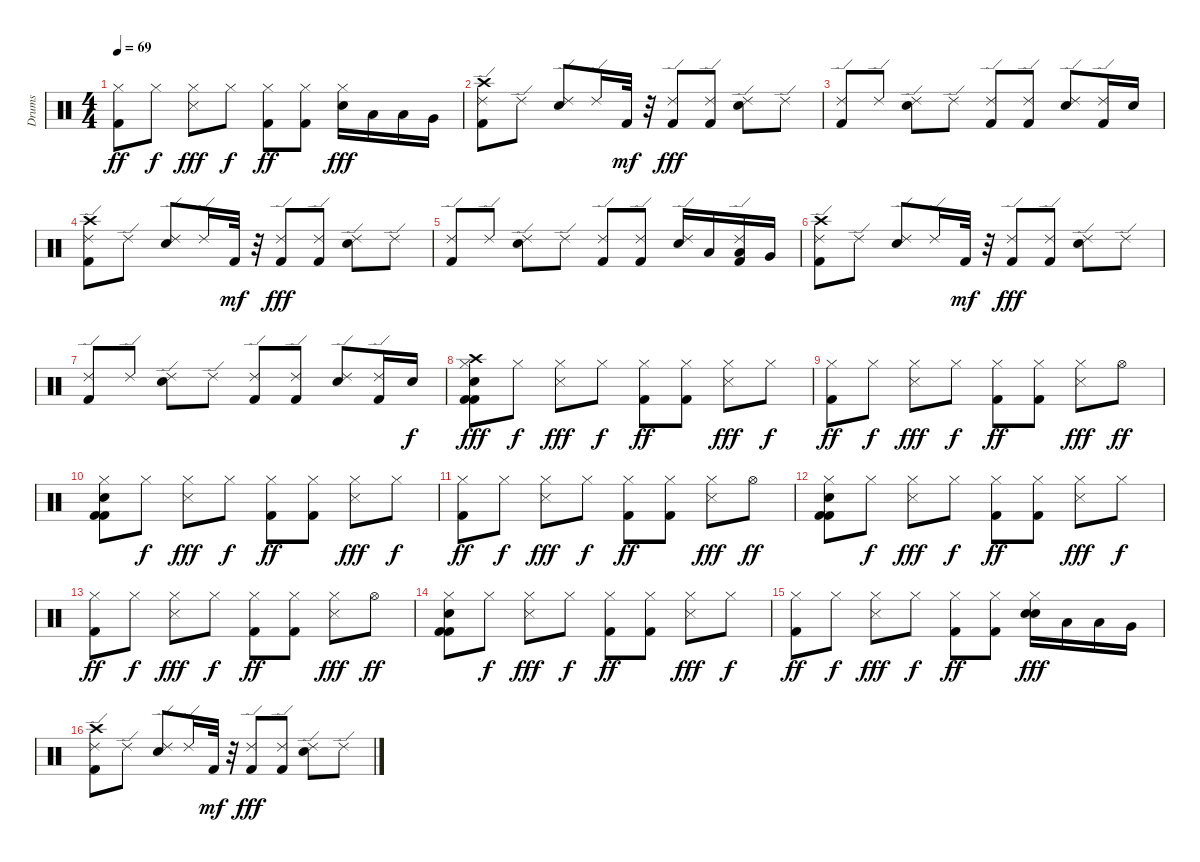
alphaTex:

\track ("Drums" "Drums") {instrument percussion}
\staff {score}
\articulation defaults
\ts (4 4)
\tempo 69
\clef neutral
\ks c
("Kick (hit) 2" "Hi-Hat (closed)").8{dy ff} "Hi-Hat (closed)".8{dy f} ("Snare (side stick) 3" "Hi-Hat (closed)").8{dy fff} "Hi-Hat (closed)".8{dy f} ("Kick (hit) 2" "Hi-Hat (closed)").8{dy ff} ("Kick (hit) 2" "Hi-Hat (closed)").8 ("Electric Snare (hit)" "Hi-Hat (closed)").16{dy fff} "Low Tom (hit)".16 "Low Tom (hit)".16 "Very Low Tom (hit)".16 |
("Kick (hit) 2" "Ride (edge) 2" "Crash high (hit)").8 "Ride (edge) 2".8 ("Electric Snare (hit)" "Ride (edge) 2").8 "Ride (edge) 2".16 "Kick (hit) 2".32{dy mf} r.32 ("Kick (hit) 2" "Ride (edge) 2").8{dy fff} ("Kick (hit) 2" "Ride (edge) 2").8 ("Electric Snare (hit)" "Ride (edge) 2").8 "Ride (edge) 2".8 |
("Kick (hit) 2" "Ride (edge) 2").8 "Ride (edge) 2".8 ("Electric Snare (hit)" "Ride (edge) 2").8 "Ride (edge) 2".8 ("Kick (hit) 2" "Ride (edge) 2").8 ("Kick (hit) 2" "Ride (edge) 2").8 ("Electric Snare (hit)" "Ride (edge) 2").8 ("Kick (hit) 2" "Ride (edge) 2").16 "Electric Snare (hit)".16 |
("Kick (hit) 2" "Ride (edge) 2" "Crash high (hit)").8 "Ride (edge) 2".8 ("Electric Snare (hit)" "Ride (edge) 2").8 "Ride (edge) 2".16 "Kick (hit) 2".32{dy mf} r.32 ("Kick (hit) 2" "Ride (edge) 2").8{dy fff} ("Kick (hit) 2" "Ride (edge) 2").8 ("Electric Snare (hit)" "Ride (edge) 2").8 "Ride (edge) 2".8 |
("Kick (hit) 2" "Ride (edge) 2").8 "Ride (edge) 2".8 ("Electric Snare (hit)" "Ride (edge) 2").8 "Ride (edge) 2".8 ("Kick (hit) 2" "Ride (edge) 2").8 ("Kick (hit) 2" "Ride (edge) 2").8 ("Electric Snare (hit)" "Ride (edge) 2").16 "Low Tom (hit)".16 ("Kick (hit) 2" "Low Tom (hit)" "Ride (edge) 2").16 "Very Low Tom (hit)".16 |
("Kick (hit) 2" "Ride (edge) 2" "Crash high (hit)").8 "Ride (edge) 2".8 ("Electric Snare (hit)" "Ride (edge) 2").8 "Ride (edge) 2".16 "Kick (hit) 2".32{dy mf} r.32 ("Kick (hit) 2" "Ride (edge) 2").8{dy fff} ("Kick (hit) 2" "Ride (edge) 2").8 ("Electric Snare (hit)" "Ride (edge) 2").8 "Ride (edge) 2".8 |
("Kick (hit) 2" "Ride (edge) 2").8 "Ride (edge) 2".8 ("Electric Snare (hit)" "Ride (edge) 2").8 "Ride (edge) 2".8 ("Kick (hit) 2" "Ride (edge) 2").8 ("Kick (hit) 2" "Ride (edge) 2").8 ("Electric Snare (hit)" "Ride (edge) 2").8 ("Kick (hit) 2" "Ride (edge) 2").16 "Electric Snare (hit)".16{dy f} |
("Snare (hit)" "Kick (hit) 2" "Kick (hit) 2" "Hi-Hat (closed)" "Crash high (hit)").8{dy fff} "Hi-Hat (closed)".8{dy f} ("Snare (side stick) 3" "Hi-Hat (closed)").8{dy fff} "Hi-Hat (closed)".8{dy f} ("Kick (hit) 2" "Hi-Hat (closed)").8{dy ff} ("Kick (hit) 2" "Hi-Hat (closed)").8 ("Snare (side stick) 3" "Hi-Hat (closed)").8{dy fff} "Hi-Hat (closed)".8{dy f} |
("Kick (hit) 2" "Hi-Hat (closed)").8{dy ff} "Hi-Hat (closed)".8{dy f} ("Snare (side stick) 3" "Hi-Hat (closed)").8{dy fff} "Hi-Hat (closed)".8{dy f} ("Kick (hit) 2" "Hi-Hat (closed)").8{dy ff} ("Kick (hit) 2" "Hi-Hat (closed)").8 ("Snare (side stick) 3" "Hi-Hat (closed)").8{dy fff} "Hi-Hat (open)".8{dy ff} |
("Snare (hit)" "Kick (hit) 2" "Kick (hit) 2" "Hi-Hat (closed)").8 "Hi-Hat (closed)".8{dy f} ("Snare (side stick) 3" "Hi-Hat (closed)").8{dy fff} "Hi-Hat (closed)".8{dy f} ("Kick (hit) 2" "Hi-Hat (closed)").8{dy ff} ("Kick (hit) 2" "Hi-Hat (closed)").8 ("Snare (side stick) 3" "Hi-Hat (closed)").8{dy fff} "Hi-Hat (closed)".8{dy f} |
("Kick (hit) 2" "Hi-Hat (closed)").8{dy ff} "Hi-Hat (closed)".8{dy f} ("Snare (side stick) 3" "Hi-Hat (closed)").8{dy fff} "Hi-Hat (closed)".8{dy f} ("Kick (hit) 2" "Hi-Hat (closed)").8{dy ff} ("Kick (hit) 2" "Hi-Hat (closed)").8 ("Snare (side stick) 3" "Hi-Hat (closed)").8{dy fff} "Hi-Hat (open)".8{dy ff} |
("Snare (hit)" "Kick (hit) 2" "Kick (hit) 2" "Hi-Hat (closed)").8 "Hi-Hat (closed)".8{dy f} ("Snare (side stick) 3" "Hi-Hat (closed)").8{dy fff} "Hi-Hat (closed)".8{dy f} ("Kick (hit) 2" "Hi-Hat (closed)").8{dy ff} ("Kick (hit) 2" "Hi-Hat (closed)").8 ("Snare (side stick) 3" "Hi-Hat (closed)").8{dy fff} "Hi-Hat (closed)".8{dy f} |
("Kick (hit) 2" "Hi-Hat (closed)").8{dy ff} "Hi-Hat (closed)".8{dy f} ("Snare (side stick) 3" "Hi-Hat (closed)").8{dy fff} "Hi-Hat (closed)".8{dy f} ("Kick (hit) 2" "Hi-Hat (closed)").8{dy ff} ("Kick (hit) 2" "Hi-Hat (closed)").8 ("Snare (side stick) 3" "Hi-Hat (closed)").8{dy fff} "Hi-Hat (open)".8{dy ff} |
("Snare (hit)" "Kick (hit) 2" "Kick (hit) 2" "Hi-Hat (closed)").8 "Hi-Hat (closed)".8{dy f} ("Snare (side stick) 3" "Hi-Hat (closed)").8{dy fff} "Hi-Hat (closed)".8{dy f} ("Kick (hit) 2" "Hi-Hat (closed)").8{dy ff} ("Kick (hit) 2" "Hi-Hat (closed)").8 ("Snare (side stick) 3" "Hi-Hat (closed)").8{dy fff} "Hi-Hat (closed)".8{dy f} |
("Kick (hit) 2" "Hi-Hat (closed)").8{dy ff} "Hi-Hat (closed)".8{dy f} ("Snare (side stick) 3" "Hi-Hat (closed)").8{dy fff} "Hi-Hat (closed)".8{dy f} ("Kick (hit) 2" "Hi-Hat (closed)").8{dy ff} ("Kick (hit) 2" "Hi-Hat (closed)").8 ("Electric Snare (hit)" "Hi-Hat (closed)" "Snare (hit) 2").16{dy fff} "Low Tom (hit)".16 "Low Tom (hit)".16 "Very Low Tom (hit)".16 |
("Kick (hit) 2" "Ride (edge) 2" "Crash high (hit)").8 "Ride (edge) 2".8 ("Electric Snare (hit)" "Ride (edge) 2").8 "Ride (edge) 2".16 "Kick (hit) 2".32{dy mf} r.32 ("Kick (hit) 2" "Ride (edge) 2").8{dy fff} ("Kick (hit) 2" "Ride (edge) 2").8 ("Electric Snare (hit)" "Ride (edge) 2").8 "Ride (edge) 2".8
